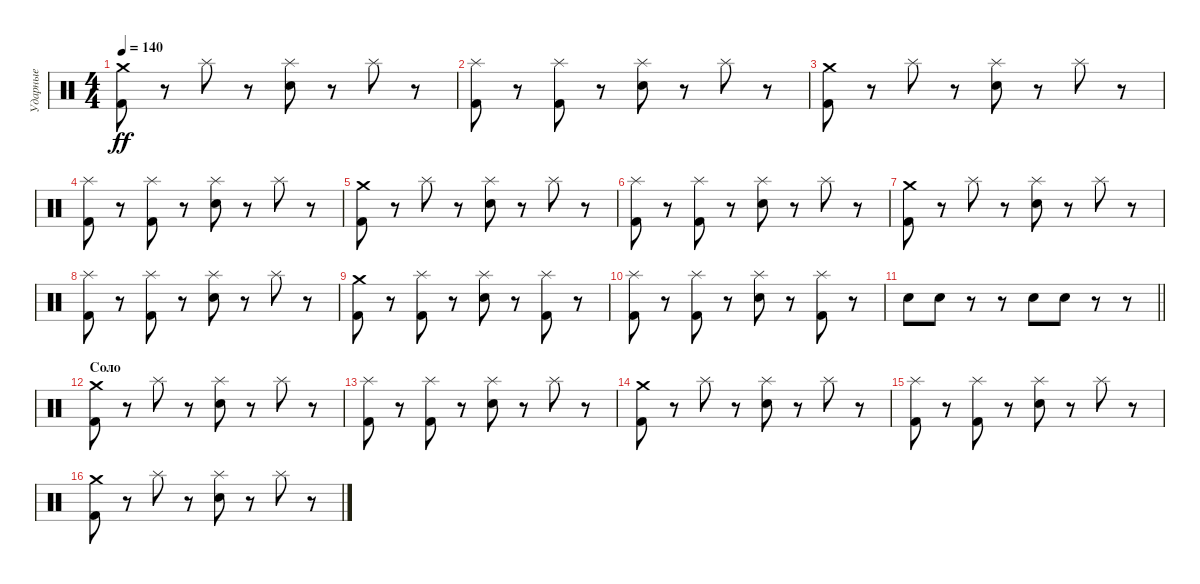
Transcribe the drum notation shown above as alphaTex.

\track ("Ударные" "Ударные") {instrument percussion}
\staff {score}
\articulation defaults
\ts (4 4)
\tempo 140
\clef neutral
\ks c
("Kick (hit) 2" "Crash medium (hit)").8{dy ff} r.8 "Splash (hit)".8 r.8 ("Snare (hit) 2" "Splash (hit)").8 r.8 "Splash (hit)".8 r.8 |
("Kick (hit) 2" "Splash (hit)").8 r.8 ("Kick (hit) 2" "Splash (hit)").8 r.8 ("Snare (hit) 2" "Splash (hit)").8 r.8 "Splash (hit)".8 r.8 |
("Kick (hit) 2" "Crash medium (hit)").8 r.8 "Splash (hit)".8 r.8 ("Snare (hit) 2" "Splash (hit)").8 r.8 "Splash (hit)".8 r.8 |
("Kick (hit) 2" "Splash (hit)").8 r.8 ("Kick (hit) 2" "Splash (hit)").8 r.8 ("Snare (hit) 2" "Splash (hit)").8 r.8 "Splash (hit)".8 r.8 |
("Kick (hit) 2" "Crash medium (hit)").8 r.8 "Splash (hit)".8 r.8 ("Snare (hit) 2" "Splash (hit)").8 r.8 "Splash (hit)".8 r.8 |
("Kick (hit) 2" "Splash (hit)").8 r.8 ("Kick (hit) 2" "Splash (hit)").8 r.8 ("Snare (hit) 2" "Splash (hit)").8 r.8 "Splash (hit)".8 r.8 |
("Kick (hit) 2" "Crash medium (hit)").8 r.8 "Splash (hit)".8 r.8 ("Snare (hit) 2" "Splash (hit)").8 r.8 "Splash (hit)".8 r.8 |
("Kick (hit) 2" "Splash (hit)").8 r.8 ("Kick (hit) 2" "Splash (hit)").8 r.8 ("Snare (hit) 2" "Splash (hit)").8 r.8 "Splash (hit)".8 r.8 |
("Kick (hit) 2" "Crash medium (hit)").8 r.8 ("Splash (hit)" "Kick (hit) 2").8 r.8 ("Snare (hit) 2" "Splash (hit)").8 r.8 ("Splash (hit)" "Kick (hit) 2").8 r.8 |
("Kick (hit) 2" "Splash (hit)").8 r.8 ("Kick (hit) 2" "Splash (hit)").8 r.8 ("Snare (hit) 2" "Splash (hit)").8 r.8 ("Splash (hit)" "Kick (hit) 2").8 r.8 |
\barLineRight lightlight "Snare (hit) 2".8 "Snare (hit) 2".8
r.8 r.8 "Snare (hit) 2".8 "Snare (hit) 2".8 r.8 r.8 |
\section ("" "Соло")
("Kick (hit) 2" "Crash medium (hit)").8 r.8 "Splash (hit)".8 r.8 ("Snare (hit) 2" "Splash (hit)").8 r.8 "Splash (hit)".8 r.8 |
("Kick (hit) 2" "Splash (hit)").8 r.8 ("Kick (hit) 2" "Splash (hit)").8 r.8 ("Snare (hit) 2" "Splash (hit)").8 r.8 "Splash (hit)".8 r.8 |
("Kick (hit) 2" "Crash medium (hit)").8 r.8 "Splash (hit)".8 r.8 ("Snare (hit) 2" "Splash (hit)").8 r.8 "Splash (hit)".8 r.8 |
("Kick (hit) 2" "Splash (hit)").8 r.8 ("Kick (hit) 2" "Splash (hit)").8 r.8 ("Snare (hit) 2" "Splash (hit)").8 r.8 "Splash (hit)".8 r.8 |
("Kick (hit) 2" "Crash medium (hit)").8 r.8 "Splash (hit)".8 r.8 ("Snare (hit) 2" "Splash (hit)").8 r.8 "Splash (hit)".8 r.8
